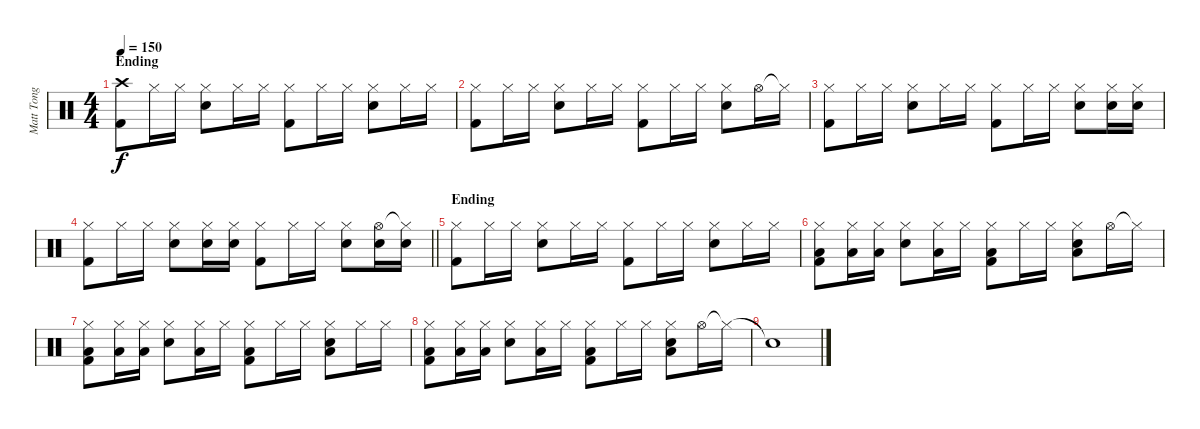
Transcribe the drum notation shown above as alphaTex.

\track ("Matt Tong" "Matt Tong") {instrument percussion}
\staff {score}
\articulation defaults
\ts (4 4)
\section ("" "Ending")
\tempo 150
\clef neutral
\ks c
("Crash high (hit)" "Kick (hit) 2").8{dy f} "Hi-Hat (closed)".16 "Hi-Hat (closed)".16 ("Hi-Hat (closed)" "Electric Snare (hit)").8 "Hi-Hat (closed)".16 "Hi-Hat (closed)".16 ("Hi-Hat (closed)" "Kick (hit) 2").8 "Hi-Hat (closed)".16 "Hi-Hat (closed)".16 ("Hi-Hat (closed)" "Electric Snare (hit)").8 "Hi-Hat (closed)".16 "Hi-Hat (closed)".16 |
("Hi-Hat (closed)" "Kick (hit) 2").8 "Hi-Hat (closed)".16 "Hi-Hat (closed)".16 ("Hi-Hat (closed)" "Electric Snare (hit)").8 "Hi-Hat (closed)".16 "Hi-Hat (closed)".16 ("Hi-Hat (closed)" "Kick (hit) 2").8 "Hi-Hat (closed)".16 "Hi-Hat (closed)".16 ("Hi-Hat (closed)" "Electric Snare (hit)").8 "Hi-Hat (open)".16 "Hi-Hat (closed)"{t}.16 |
("Hi-Hat (closed)" "Kick (hit) 2").8 "Hi-Hat (closed)".16 "Hi-Hat (closed)".16 ("Hi-Hat (closed)" "Electric Snare (hit)").8 "Hi-Hat (closed)".16 "Hi-Hat (closed)".16 ("Hi-Hat (closed)" "Kick (hit) 2").8 "Hi-Hat (closed)".16 "Hi-Hat (closed)".16 ("Hi-Hat (closed)" "Electric Snare (hit)").8 ("Hi-Hat (closed)" "Electric Snare (hit)").16 ("Hi-Hat (closed)" "Electric Snare (hit)").16 |
\barLineRight lightlight
("Hi-Hat (closed)" "Kick (hit) 2").8 "Hi-Hat (closed)".16 "Hi-Hat (closed)".16 ("Hi-Hat (closed)" "Electric Snare (hit)").8 ("Hi-Hat (closed)" "Electric Snare (hit)").16 ("Hi-Hat (closed)" "Electric Snare (hit)").16 ("Hi-Hat (closed)" "Kick (hit) 2").8 "Hi-Hat (closed)".16 "Hi-Hat (closed)".16 ("Hi-Hat (closed)" "Electric Snare (hit)").8 ("Hi-Hat (open)" "Electric Snare (hit)").16 ("Hi-Hat (closed)"{t} "Electric Snare (hit)").16 |
\section ("" "Ending ")
("Hi-Hat (closed)" "Kick (hit) 2").8 "Hi-Hat (closed)".16 "Hi-Hat (closed)".16 ("Hi-Hat (closed)" "Electric Snare (hit)").8 "Hi-Hat (closed)".16 "Hi-Hat (closed)".16 ("Hi-Hat (closed)" "Kick (hit) 2").8 "Hi-Hat (closed)".16 "Hi-Hat (closed)".16 ("Hi-Hat (closed)" "Electric Snare (hit)").8 "Hi-Hat (closed)".16 "Hi-Hat (closed)".16 |
("Hi-Hat (closed)" "Low Tom (hit)" "Kick (hit) 2").8 ("Hi-Hat (closed)" "Low Tom (hit)").16 ("Hi-Hat (closed)" "Low Tom (hit)").16 ("Hi-Hat (closed)" "Electric Snare (hit)").8 ("Hi-Hat (closed)" "Low Tom (hit)").16 "Hi-Hat (closed)".16 ("Hi-Hat (closed)" "Low Tom (hit)" "Kick (hit) 2").8 "Hi-Hat (closed)".16 "Hi-Hat (closed)".16 ("Hi-Hat (closed)" "Low Tom (hit)" "Electric Snare (hit)").8 "Hi-Hat (open)".16 "Hi-Hat (closed)"{t}.16 |
("Hi-Hat (closed)" "Low Tom (hit)" "Kick (hit) 2").8 ("Hi-Hat (closed)" "Low Tom (hit)").16 ("Hi-Hat (closed)" "Low Tom (hit)").16 ("Hi-Hat (closed)" "Electric Snare (hit)").8 ("Hi-Hat (closed)" "Low Tom (hit)").16 "Hi-Hat (closed)".16 ("Hi-Hat (closed)" "Low Tom (hit)" "Kick (hit) 2").8 "Hi-Hat (closed)".16 "Hi-Hat (closed)".16 ("Hi-Hat (closed)" "Low Tom (hit)" "Electric Snare (hit)").8 "Hi-Hat (closed)".16 "Hi-Hat (closed)".16 |
("Hi-Hat (closed)" "Low Tom (hit)" "Kick (hit) 2").8 ("Hi-Hat (closed)" "Low Tom (hit)").16 ("Hi-Hat (closed)" "Low Tom (hit)").16 ("Hi-Hat (closed)" "Electric Snare (hit)").8 ("Hi-Hat (closed)" "Low Tom (hit)").16 "Hi-Hat (closed)".16 ("Hi-Hat (closed)" "Low Tom (hit)" "Kick (hit) 2").8 "Hi-Hat (closed)".16 "Hi-Hat (closed)".16 ("Hi-Hat (closed)" "Low Tom (hit)" "Electric Snare (hit)").8 "Hi-Hat (open)".16 "Hi-Hat (closed)"{t}.16 |
"Snare (hit)"{t}.1
